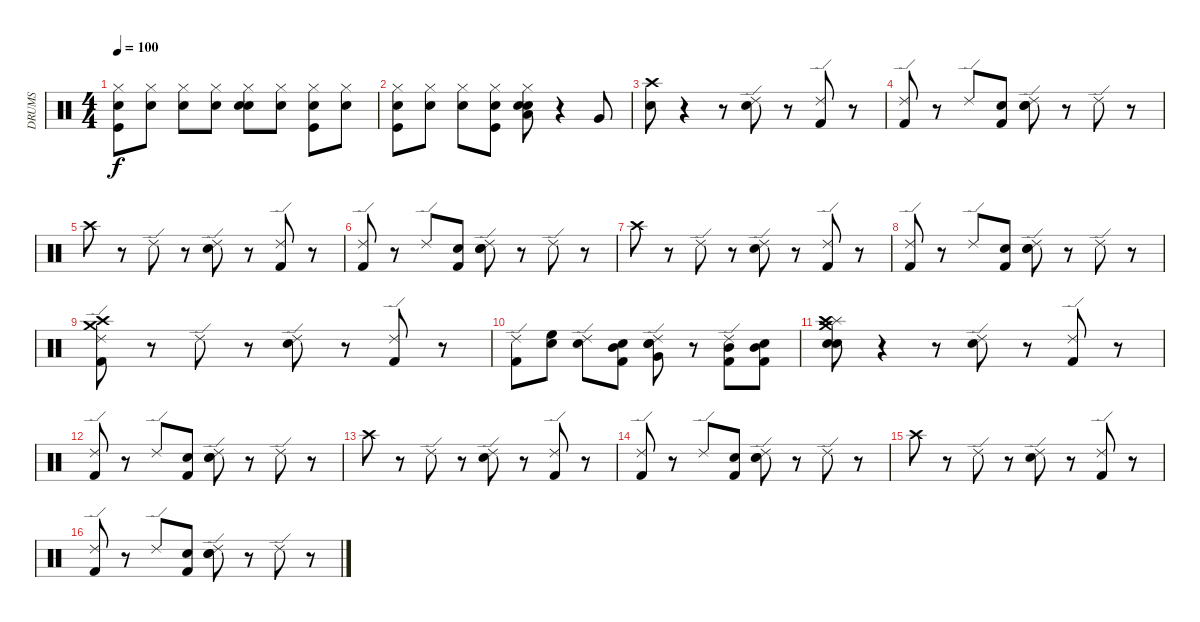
\track ("DRUMS" "DRUMS") {instrument percussion}
\staff {score}
\articulation defaults
\ts (4 4)
\tempo 100
\clef neutral
\ks c
("Snare (hit)" "Kick (hit)" "Hi-Hat (closed)").8{dy f} ("Snare (hit)" "Hi-Hat (closed)").8 ("Snare (hit)" "Hi-Hat (closed)").8 ("Snare (hit)" "Hi-Hat (closed)").8 ("Snare (hit)" "Snare (hit) 2" "Hi-Hat (closed)").8 ("Snare (hit)" "Hi-Hat (closed)").8 ("Snare (hit)" "Kick (hit)" "Hi-Hat (closed)").8 ("Snare (hit)" "Hi-Hat (closed)").8 |
("Snare (hit)" "Kick (hit)" "Hi-Hat (closed)").8 ("Snare (hit)" "Hi-Hat (closed)").8 ("Snare (hit)" "Hi-Hat (closed)").8 ("Snare (hit)" "Kick (hit)" "Hi-Hat (closed)").8 ("Snare (hit)" "Low Tom (hit)" "Snare (hit) 2" "Hi-Hat (closed)").8 r.4 "Very Low Tom (hit)".8 |
("Snare (hit)" "Crash high (hit)").8 r.4 r.8 ("Snare (hit) 2" "Ride (edge) 2").8 r.8 ("Kick (hit) 2" "Ride (edge) 2").8 r.8 |
("Kick (hit) 2" "Ride (edge) 2").8 r.8 "Ride (edge) 2".8 ("Snare (hit)" "Kick (hit) 2").8 ("Snare (hit)" "Snare (hit) 2" "Ride (edge) 2").8 r.8 "Ride (edge) 2".8 r.8 |
"Crash high (hit)".8 r.8 "Ride (edge) 2".8 r.8 ("Snare (hit) 2" "Ride (edge) 2").8 r.8 ("Kick (hit) 2" "Ride (edge) 2").8 r.8 |
("Kick (hit) 2" "Ride (edge) 2").8 r.8 "Ride (edge) 2".8 ("Snare (hit)" "Kick (hit) 2").8 ("Snare (hit)" "Snare (hit) 2" "Ride (edge) 2").8 r.8 "Ride (edge) 2".8 r.8 |
"Crash high (hit)".8 r.8 "Ride (edge) 2".8 r.8 ("Snare (hit) 2" "Ride (edge) 2").8 r.8 ("Kick (hit) 2" "Ride (edge) 2").8 r.8 |
("Ride (edge) 2" "Kick (hit) 2").8 r.8 "Ride (edge) 2".8 ("Snare (hit)" "Kick (hit) 2").8 ("Snare (hit)" "Ride (edge) 2" "Snare (hit) 2").8 r.8 "Ride (edge) 2".8 r.8 |
("Crash high (hit)" "Crash medium (hit)" "Kick (hit) 2" "Ride (edge) 2").8 r.8 "Ride (edge) 2".8 r.8 ("Snare (hit) 2" "Ride (edge) 2").8 r.8 ("Kick (hit) 2" "Ride (edge) 2").8 r.8 |
("Kick (hit) 2" "Ride (edge) 2").8 ("Snare (hit)" "High Floor Tom (hit)").8 ("Snare (hit)" "Ride (edge) 2").8 ("Snare (hit)" "Mid Tom (hit)" "Kick (hit) 2").8 ("Snare (hit)" "Very Low Tom (hit)" "Snare (hit) 2" "Ride (edge) 2").8 r.8 ("Mid Tom (hit)" "Kick (hit) 2" "Ride (edge) 2").8 ("Snare (hit)" "Mid Tom (hit)" "Kick (hit) 2").8 |
("Snare (hit)" "Snare (hit) 2" "Crash medium (hit)" "Splash (hit)" "Crash high (hit)").8 r.4 r.8 ("Snare (hit) 2" "Ride (edge) 2").8 r.8 ("Kick (hit) 2" "Ride (edge) 2").8 r.8 |
("Kick (hit) 2" "Ride (edge) 2").8 r.8 "Ride (edge) 2".8 ("Snare (hit)" "Kick (hit) 2").8 ("Snare (hit)" "Snare (hit) 2" "Ride (edge) 2").8 r.8 "Ride (edge) 2".8 r.8 |
"Crash high (hit)".8 r.8 "Ride (edge) 2".8 r.8 ("Snare (hit) 2" "Ride (edge) 2").8 r.8 ("Kick (hit) 2" "Ride (edge) 2").8 r.8 |
("Kick (hit) 2" "Ride (edge) 2").8 r.8 "Ride (edge) 2".8 ("Snare (hit)" "Kick (hit) 2").8 ("Snare (hit)" "Snare (hit) 2" "Ride (edge) 2").8 r.8 "Ride (edge) 2".8 r.8 |
"Crash high (hit)".8 r.8 "Ride (edge) 2".8 r.8 ("Snare (hit) 2" "Ride (edge) 2").8 r.8 ("Kick (hit) 2" "Ride (edge) 2").8 r.8 |
("Ride (edge) 2" "Kick (hit) 2").8 r.8 "Ride (edge) 2".8 ("Snare (hit)" "Kick (hit) 2").8 ("Snare (hit)" "Ride (edge) 2" "Snare (hit) 2").8 r.8 "Ride (edge) 2".8 r.8
